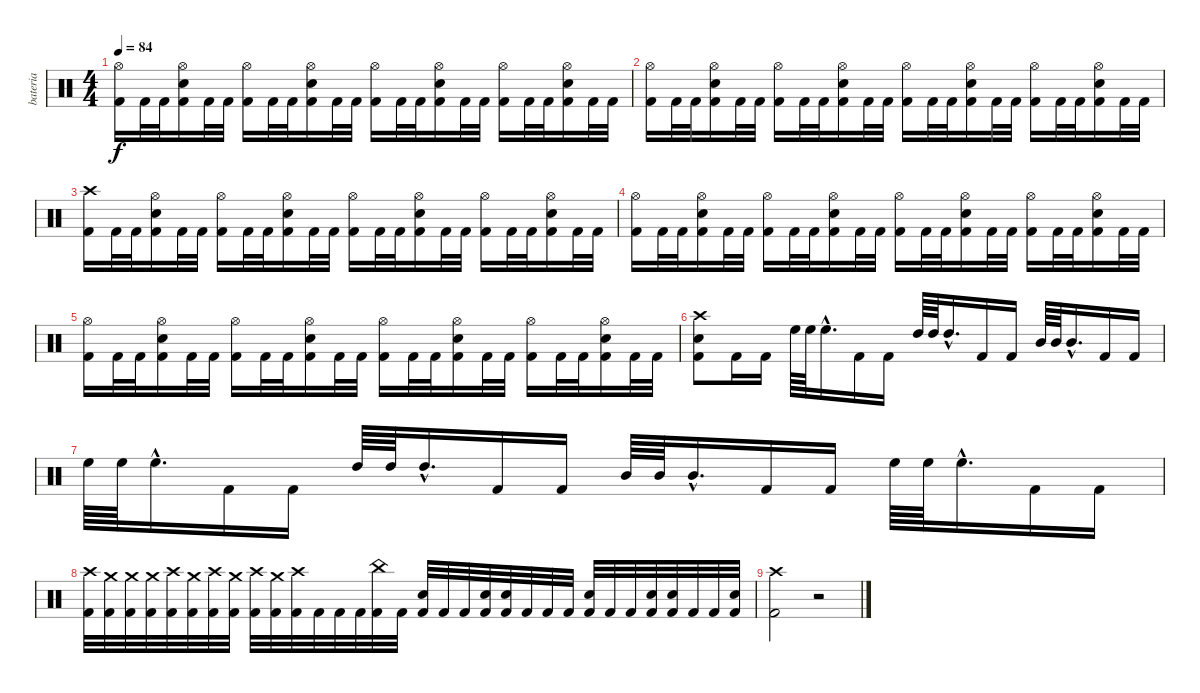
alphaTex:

\track ("bateria" "bateria") {instrument percussion}
\staff {score}
\articulation defaults
\ts (4 4)
\tempo 84
\clef neutral
\ks c
("Kick (hit) 2" "Hi-Hat (open)").16{dy f} "Kick (hit) 2".32 "Kick (hit) 2".32 ("Kick (hit) 2" "Electric Snare (hit)" "Hi-Hat (open)").16 "Kick (hit) 2".32 "Kick (hit) 2".32 ("Kick (hit) 2" "Hi-Hat (open)").16 "Kick (hit) 2".32 "Kick (hit) 2".32 ("Kick (hit) 2" "Electric Snare (hit)" "Hi-Hat (open)").16 "Kick (hit) 2".32 "Kick (hit) 2".32 ("Kick (hit) 2" "Hi-Hat (open)").16 "Kick (hit) 2".32 "Kick (hit) 2".32 ("Kick (hit) 2" "Electric Snare (hit)" "Hi-Hat (open)").16 "Kick (hit) 2".32 "Kick (hit) 2".32 ("Kick (hit) 2" "Hi-Hat (open)").16 "Kick (hit) 2".32 "Kick (hit) 2".32 ("Kick (hit) 2" "Electric Snare (hit)" "Hi-Hat (open)").16 "Kick (hit) 2".32 "Kick (hit) 2".32 |
("Kick (hit) 2" "Hi-Hat (open)").16 "Kick (hit) 2".32 "Kick (hit) 2".32 ("Kick (hit) 2" "Electric Snare (hit)" "Hi-Hat (open)").16 "Kick (hit) 2".32 "Kick (hit) 2".32 ("Kick (hit) 2" "Hi-Hat (open)").16 "Kick (hit) 2".32 "Kick (hit) 2".32 ("Kick (hit) 2" "Electric Snare (hit)" "Hi-Hat (open)").16 "Kick (hit) 2".32 "Kick (hit) 2".32 ("Kick (hit) 2" "Hi-Hat (open)").16 "Kick (hit) 2".32 "Kick (hit) 2".32 ("Kick (hit) 2" "Electric Snare (hit)" "Hi-Hat (open)").16 "Kick (hit) 2".32 "Kick (hit) 2".32 ("Kick (hit) 2" "Hi-Hat (open)").16 "Kick (hit) 2".32 "Kick (hit) 2".32 ("Kick (hit) 2" "Electric Snare (hit)" "Hi-Hat (open)").16 "Kick (hit) 2".32 "Kick (hit) 2".32 |
("Kick (hit) 2" "Crash high (hit)").16 "Kick (hit) 2".32 "Kick (hit) 2".32 ("Kick (hit) 2" "Electric Snare (hit)" "Hi-Hat (open)").16 "Kick (hit) 2".32 "Kick (hit) 2".32 ("Kick (hit) 2" "Hi-Hat (open)").16 "Kick (hit) 2".32 "Kick (hit) 2".32 ("Kick (hit) 2" "Electric Snare (hit)" "Hi-Hat (open)").16 "Kick (hit) 2".32 "Kick (hit) 2".32 ("Kick (hit) 2" "Hi-Hat (open)").16 "Kick (hit) 2".32 "Kick (hit) 2".32 ("Kick (hit) 2" "Electric Snare (hit)" "Hi-Hat (open)").16 "Kick (hit) 2".32 "Kick (hit) 2".32 ("Kick (hit) 2" "Hi-Hat (open)").16 "Kick (hit) 2".32 "Kick (hit) 2".32 ("Kick (hit) 2" "Electric Snare (hit)" "Hi-Hat (open)").16 "Kick (hit) 2".32 "Kick (hit) 2".32 |
("Kick (hit) 2" "Hi-Hat (open)").16 "Kick (hit) 2".32 "Kick (hit) 2".32 ("Kick (hit) 2" "Electric Snare (hit)" "Hi-Hat (open)").16 "Kick (hit) 2".32 "Kick (hit) 2".32 ("Kick (hit) 2" "Hi-Hat (open)").16 "Kick (hit) 2".32 "Kick (hit) 2".32 ("Kick (hit) 2" "Electric Snare (hit)" "Hi-Hat (open)").16 "Kick (hit) 2".32 "Kick (hit) 2".32 ("Kick (hit) 2" "Hi-Hat (open)").16 "Kick (hit) 2".32 "Kick (hit) 2".32 ("Kick (hit) 2" "Electric Snare (hit)" "Hi-Hat (open)").16 "Kick (hit) 2".32 "Kick (hit) 2".32 ("Kick (hit) 2" "Hi-Hat (open)").16 "Kick (hit) 2".32 "Kick (hit) 2".32 ("Kick (hit) 2" "Electric Snare (hit)" "Hi-Hat (open)").16 "Kick (hit) 2".32 "Kick (hit) 2".32 |
("Kick (hit) 2" "Hi-Hat (open)").16 "Kick (hit) 2".32 "Kick (hit) 2".32 ("Kick (hit) 2" "Electric Snare (hit)" "Hi-Hat (open)").16 "Kick (hit) 2".32 "Kick (hit) 2".32 ("Kick (hit) 2" "Hi-Hat (open)").16 "Kick (hit) 2".32 "Kick (hit) 2".32 ("Kick (hit) 2" "Electric Snare (hit)" "Hi-Hat (open)").16 "Kick (hit) 2".32 "Kick (hit) 2".32 ("Kick (hit) 2" "Hi-Hat (open)").16 "Kick (hit) 2".32 "Kick (hit) 2".32 ("Kick (hit) 2" "Electric Snare (hit)" "Hi-Hat (open)").16 "Kick (hit) 2".32 "Kick (hit) 2".32 ("Kick (hit) 2" "Hi-Hat (open)").16 "Kick (hit) 2".32 "Kick (hit) 2".32 ("Kick (hit) 2" "Electric Snare (hit)" "Hi-Hat (open)").16 "Kick (hit) 2".32 "Kick (hit) 2".32 |
("Kick (hit) 2" "Electric Snare (hit)" "Crash high (hit)").8 "Kick (hit) 2".16 "Kick (hit) 2".16 "High Floor Tom (hit)".64 "High Floor Tom (hit)".64 "High Floor Tom (hit)"{hac}.16{d} "Kick (hit) 2".16 "Kick (hit) 2".16 "High Tom (hit)".64 "High Tom (hit)".64 "High Tom (hit)"{hac}.16{d} "Kick (hit) 2".16 "Kick (hit) 2".16 "Mid Tom (hit)".64 "Mid Tom (hit)".64 "Mid Tom (hit)"{hac}.16{d} "Kick (hit) 2".16 "Kick (hit) 2".16 |
"High Floor Tom (hit)".64 "High Floor Tom (hit)".64 "High Floor Tom (hit)"{hac}.16{d} "Kick (hit) 2".16 "Kick (hit) 2".16 "High Tom (hit)".64 "High Tom (hit)".64 "High Tom (hit)"{hac}.16{d} "Kick (hit) 2".16 "Kick (hit) 2".16 "Mid Tom (hit)".64 "Mid Tom (hit)".64 "Mid Tom (hit)"{hac}.16{d} "Kick (hit) 2".16 "Kick (hit) 2".16 "High Floor Tom (hit)".64 "High Floor Tom (hit)".64 "High Floor Tom (hit)"{hac}.16{d} "Kick (hit) 2".16 "Kick (hit) 2".16 |
("Kick (hit) 2" "Crash high (hit)").32 ("Kick (hit) 2" "Crash medium (hit)").32 ("Kick (hit) 2" "Crash medium (hit)").32 ("Kick (hit) 2" "Crash medium (hit)").32 ("Kick (hit) 2" "Crash high (hit)").32 ("Kick (hit) 2" "Crash medium (hit)").32 ("Kick (hit) 2" "Crash high (hit)").32 ("Kick (hit) 2" "Crash medium (hit)").32 ("Kick (hit) 2" "Crash high (hit)").32 ("Kick (hit) 2" "Crash medium (hit)").32 ("Kick (hit) 2" "Crash high (hit)").32 "Kick (hit) 2".32 "Kick (hit) 2".32 "Kick (hit) 2".32 ("Kick (hit) 2" "China (hit)").32 "Kick (hit) 2".32 ("Kick (hit) 2" "Electric Snare (hit)").32 "Kick (hit) 2".32 "Kick (hit) 2".32 ("Kick (hit) 2" "Electric Snare (hit)").32 ("Kick (hit) 2" "Electric Snare (hit)").32 "Kick (hit) 2".32 "Kick (hit) 2".32 "Kick (hit) 2".32 ("Kick (hit) 2" "Electric Snare (hit)").32 "Kick (hit) 2".32 "Kick (hit) 2".32 ("Kick (hit) 2" "Electric Snare (hit)").32 ("Kick (hit) 2" "Electric Snare (hit)").32 "Kick (hit) 2".32 "Kick (hit) 2".32 ("Kick (hit) 2" "Electric Snare (hit)").32 |
("Kick (hit) 2" "Crash high (hit)").2 r.2
